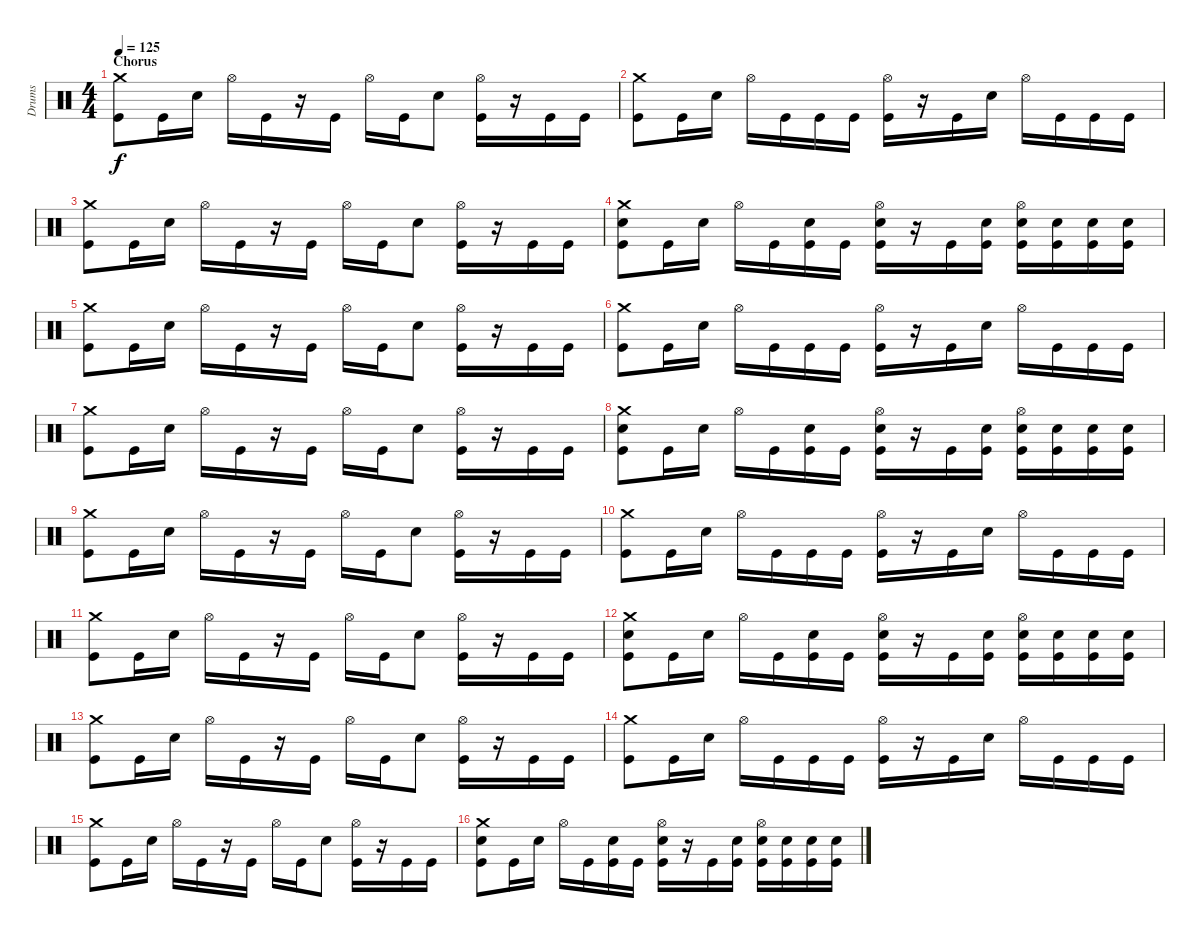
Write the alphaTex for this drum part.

\track ("Drums" "Drums") {instrument percussion}
\staff {score}
\articulation defaults
\ts (4 4)
\section ("" "Chorus")
\tempo 125
\clef neutral
\ks c
("Crash medium (hit)" "Kick (hit)").8{dy f} "Kick (hit)".16 "Electric Snare (hit)".16 "Hi-Hat (open)".16 "Kick (hit)".16 r.16 "Kick (hit)".16 "Hi-Hat (open)".16 "Kick (hit)".16 "Electric Snare (hit)".8 ("Hi-Hat (open)" "Kick (hit)").16 r.16 "Kick (hit)".16 "Kick (hit)".16 |
("Crash medium (hit)" "Kick (hit)").8 "Kick (hit)".16 "Electric Snare (hit)".16 "Hi-Hat (open)".16 "Kick (hit)".16 "Kick (hit)".16 "Kick (hit)".16 ("Hi-Hat (open)" "Kick (hit)").16 r.16 "Kick (hit)".16 "Electric Snare (hit)".16 "Hi-Hat (open)".16 "Kick (hit)".16 "Kick (hit)".16 "Kick (hit)".16 |
("Crash medium (hit)" "Kick (hit)").8 "Kick (hit)".16 "Electric Snare (hit)".16 "Hi-Hat (open)".16 "Kick (hit)".16 r.16 "Kick (hit)".16 "Hi-Hat (open)".16 "Kick (hit)".16 "Electric Snare (hit)".8 ("Hi-Hat (open)" "Kick (hit)").16 r.16 "Kick (hit)".16 "Kick (hit)".16 |
("Crash medium (hit)" "Electric Snare (hit)" "Kick (hit)").8 "Kick (hit)".16 "Electric Snare (hit)".16 "Hi-Hat (open)".16 "Kick (hit)".16 ("Electric Snare (hit)" "Kick (hit)").16 "Kick (hit)".16 ("Hi-Hat (open)" "Electric Snare (hit)" "Kick (hit)").16 r.16 "Kick (hit)".16 ("Electric Snare (hit)" "Kick (hit)").16 ("Hi-Hat (open)" "Electric Snare (hit)" "Kick (hit)").16 ("Electric Snare (hit)" "Kick (hit)").16 ("Electric Snare (hit)" "Kick (hit)").16 ("Electric Snare (hit)" "Kick (hit)").16 |
("Crash medium (hit)" "Kick (hit)").8 "Kick (hit)".16 "Electric Snare (hit)".16 "Hi-Hat (open)".16 "Kick (hit)".16 r.16 "Kick (hit)".16 "Hi-Hat (open)".16 "Kick (hit)".16 "Electric Snare (hit)".8 ("Hi-Hat (open)" "Kick (hit)").16 r.16 "Kick (hit)".16 "Kick (hit)".16 |
("Crash medium (hit)" "Kick (hit)").8 "Kick (hit)".16 "Electric Snare (hit)".16 "Hi-Hat (open)".16 "Kick (hit)".16 "Kick (hit)".16 "Kick (hit)".16 ("Hi-Hat (open)" "Kick (hit)").16 r.16 "Kick (hit)".16 "Electric Snare (hit)".16 "Hi-Hat (open)".16 "Kick (hit)".16 "Kick (hit)".16 "Kick (hit)".16 |
("Crash medium (hit)" "Kick (hit)").8 "Kick (hit)".16 "Electric Snare (hit)".16 "Hi-Hat (open)".16 "Kick (hit)".16 r.16 "Kick (hit)".16 "Hi-Hat (open)".16 "Kick (hit)".16 "Electric Snare (hit)".8 ("Hi-Hat (open)" "Kick (hit)").16 r.16 "Kick (hit)".16 "Kick (hit)".16 |
("Crash medium (hit)" "Electric Snare (hit)" "Kick (hit)").8 "Kick (hit)".16 "Electric Snare (hit)".16 "Hi-Hat (open)".16 "Kick (hit)".16 ("Electric Snare (hit)" "Kick (hit)").16 "Kick (hit)".16 ("Hi-Hat (open)" "Electric Snare (hit)" "Kick (hit)").16 r.16 "Kick (hit)".16 ("Electric Snare (hit)" "Kick (hit)").16 ("Hi-Hat (open)" "Electric Snare (hit)" "Kick (hit)").16 ("Electric Snare (hit)" "Kick (hit)").16 ("Electric Snare (hit)" "Kick (hit)").16 ("Electric Snare (hit)" "Kick (hit)").16 |
("Crash medium (hit)" "Kick (hit)").8 "Kick (hit)".16 "Electric Snare (hit)".16 "Hi-Hat (open)".16 "Kick (hit)".16 r.16 "Kick (hit)".16 "Hi-Hat (open)".16 "Kick (hit)".16 "Electric Snare (hit)".8 ("Hi-Hat (open)" "Kick (hit)").16 r.16 "Kick (hit)".16 "Kick (hit)".16 |
("Crash medium (hit)" "Kick (hit)").8 "Kick (hit)".16 "Electric Snare (hit)".16 "Hi-Hat (open)".16 "Kick (hit)".16 "Kick (hit)".16 "Kick (hit)".16 ("Hi-Hat (open)" "Kick (hit)").16 r.16 "Kick (hit)".16 "Electric Snare (hit)".16 "Hi-Hat (open)".16 "Kick (hit)".16 "Kick (hit)".16 "Kick (hit)".16 |
("Crash medium (hit)" "Kick (hit)").8 "Kick (hit)".16 "Electric Snare (hit)".16 "Hi-Hat (open)".16 "Kick (hit)".16 r.16 "Kick (hit)".16 "Hi-Hat (open)".16 "Kick (hit)".16 "Electric Snare (hit)".8 ("Hi-Hat (open)" "Kick (hit)").16 r.16 "Kick (hit)".16 "Kick (hit)".16 |
("Crash medium (hit)" "Electric Snare (hit)" "Kick (hit)").8 "Kick (hit)".16 "Electric Snare (hit)".16 "Hi-Hat (open)".16 "Kick (hit)".16 ("Electric Snare (hit)" "Kick (hit)").16 "Kick (hit)".16 ("Hi-Hat (open)" "Electric Snare (hit)" "Kick (hit)").16 r.16 "Kick (hit)".16 ("Electric Snare (hit)" "Kick (hit)").16 ("Hi-Hat (open)" "Electric Snare (hit)" "Kick (hit)").16 ("Electric Snare (hit)" "Kick (hit)").16 ("Electric Snare (hit)" "Kick (hit)").16 ("Electric Snare (hit)" "Kick (hit)").16 |
("Crash medium (hit)" "Kick (hit)").8 "Kick (hit)".16 "Electric Snare (hit)".16 "Hi-Hat (open)".16 "Kick (hit)".16 r.16 "Kick (hit)".16 "Hi-Hat (open)".16 "Kick (hit)".16 "Electric Snare (hit)".8 ("Hi-Hat (open)" "Kick (hit)").16 r.16 "Kick (hit)".16 "Kick (hit)".16 |
("Crash medium (hit)" "Kick (hit)").8 "Kick (hit)".16 "Electric Snare (hit)".16 "Hi-Hat (open)".16 "Kick (hit)".16 "Kick (hit)".16 "Kick (hit)".16 ("Hi-Hat (open)" "Kick (hit)").16 r.16 "Kick (hit)".16 "Electric Snare (hit)".16 "Hi-Hat (open)".16 "Kick (hit)".16 "Kick (hit)".16 "Kick (hit)".16 |
("Crash medium (hit)" "Kick (hit)").8 "Kick (hit)".16 "Electric Snare (hit)".16 "Hi-Hat (open)".16 "Kick (hit)".16 r.16 "Kick (hit)".16 "Hi-Hat (open)".16 "Kick (hit)".16 "Electric Snare (hit)".8 ("Hi-Hat (open)" "Kick (hit)").16 r.16 "Kick (hit)".16 "Kick (hit)".16 |
("Crash medium (hit)" "Electric Snare (hit)" "Kick (hit)").8 "Kick (hit)".16 "Electric Snare (hit)".16 "Hi-Hat (open)".16 "Kick (hit)".16 ("Electric Snare (hit)" "Kick (hit)").16 "Kick (hit)".16 ("Hi-Hat (open)" "Electric Snare (hit)" "Kick (hit)").16 r.16 "Kick (hit)".16 ("Electric Snare (hit)" "Kick (hit)").16 ("Hi-Hat (open)" "Electric Snare (hit)" "Kick (hit)").16 ("Electric Snare (hit)" "Kick (hit)").16 ("Electric Snare (hit)" "Kick (hit)").16 ("Electric Snare (hit)" "Kick (hit)").16
